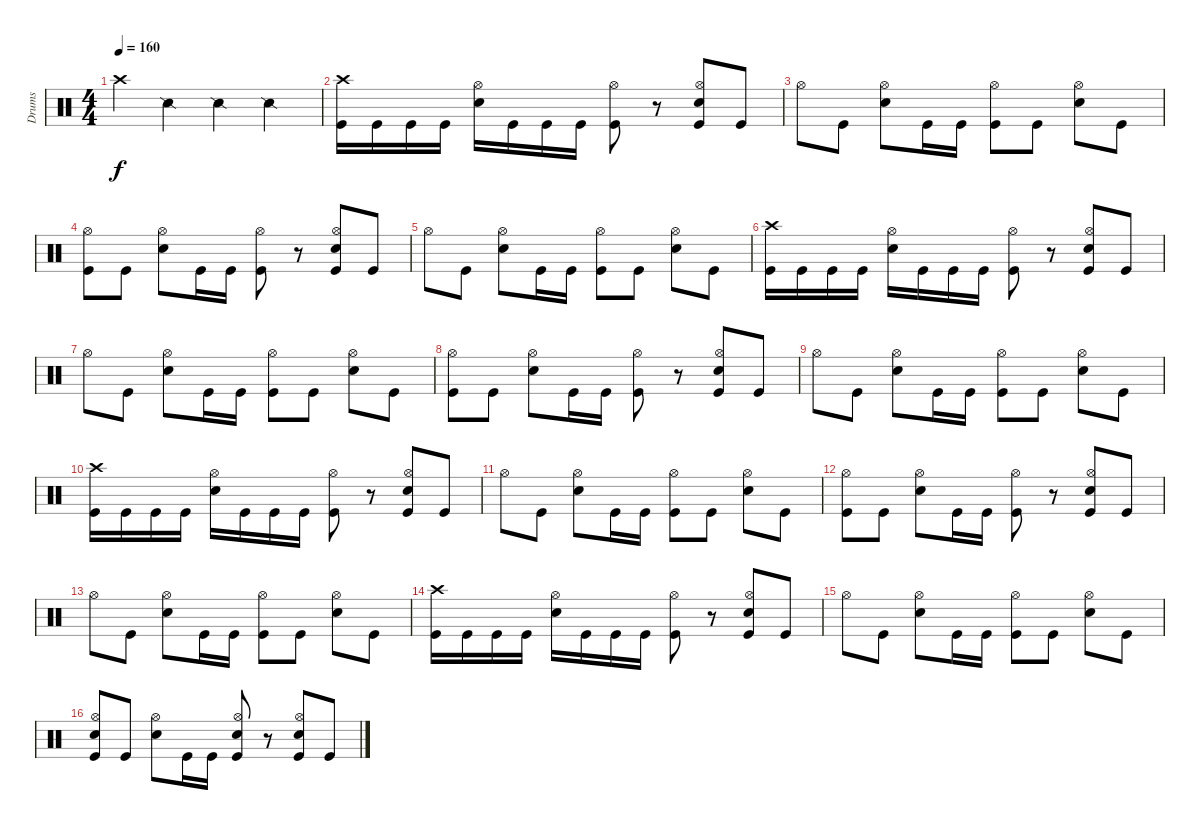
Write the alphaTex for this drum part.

\track ("Drums" "Drums") {instrument percussion}
\staff {score}
\articulation defaults
\ts (4 4)
\tempo 160
\clef neutral
\ks c "Crash high (hit)".4{dy f} "Snare (side stick) 2".4 "Snare (side stick) 2".4 "Snare (side stick) 2".4
|
("Crash high (hit)" "Kick (hit)").16 "Kick (hit)".16 "Kick (hit)".16 "Kick (hit)".16 ("Hi-Hat (open)" "Electric Snare (hit)").16 "Kick (hit)".16 "Kick (hit)".16 "Kick (hit)".16 ("Hi-Hat (open)" "Kick (hit)").8 r.8 ("Hi-Hat (open)" "Electric Snare (hit)" "Kick (hit)").8 "Kick (hit)".8 |
"Hi-Hat (open)".8 "Kick (hit)".8 ("Hi-Hat (open)" "Electric Snare (hit)").8 "Kick (hit)".16 "Kick (hit)".16 ("Hi-Hat (open)" "Kick (hit)").8 "Kick (hit)".8 ("Hi-Hat (open)" "Electric Snare (hit)").8 "Kick (hit)".8 |
("Hi-Hat (open)" "Kick (hit)").8 "Kick (hit)".8 ("Hi-Hat (open)" "Electric Snare (hit)").8 "Kick (hit)".16 "Kick (hit)".16 ("Hi-Hat (open)" "Kick (hit)").8 r.8 ("Hi-Hat (open)" "Electric Snare (hit)" "Kick (hit)").8 "Kick (hit)".8 |
"Hi-Hat (open)".8 "Kick (hit)".8 ("Hi-Hat (open)" "Electric Snare (hit)").8 "Kick (hit)".16 "Kick (hit)".16 ("Hi-Hat (open)" "Kick (hit)").8 "Kick (hit)".8 ("Hi-Hat (open)" "Electric Snare (hit)").8 "Kick (hit)".8 |
("Crash high (hit)" "Kick (hit)").16 "Kick (hit)".16 "Kick (hit)".16 "Kick (hit)".16 ("Hi-Hat (open)" "Electric Snare (hit)").16 "Kick (hit)".16 "Kick (hit)".16 "Kick (hit)".16 ("Hi-Hat (open)" "Kick (hit)").8 r.8 ("Hi-Hat (open)" "Electric Snare (hit)" "Kick (hit)").8 "Kick (hit)".8 |
"Hi-Hat (open)".8 "Kick (hit)".8 ("Hi-Hat (open)" "Electric Snare (hit)").8 "Kick (hit)".16 "Kick (hit)".16 ("Hi-Hat (open)" "Kick (hit)").8 "Kick (hit)".8 ("Hi-Hat (open)" "Electric Snare (hit)").8 "Kick (hit)".8 |
("Hi-Hat (open)" "Kick (hit)").8 "Kick (hit)".8 ("Hi-Hat (open)" "Electric Snare (hit)").8 "Kick (hit)".16 "Kick (hit)".16 ("Hi-Hat (open)" "Kick (hit)").8 r.8 ("Hi-Hat (open)" "Electric Snare (hit)" "Kick (hit)").8 "Kick (hit)".8 |
"Hi-Hat (open)".8 "Kick (hit)".8 ("Hi-Hat (open)" "Electric Snare (hit)").8 "Kick (hit)".16 "Kick (hit)".16 ("Hi-Hat (open)" "Kick (hit)").8 "Kick (hit)".8 ("Hi-Hat (open)" "Electric Snare (hit)").8 "Kick (hit)".8 |
("Crash high (hit)" "Kick (hit)").16 "Kick (hit)".16 "Kick (hit)".16 "Kick (hit)".16 ("Hi-Hat (open)" "Electric Snare (hit)").16 "Kick (hit)".16 "Kick (hit)".16 "Kick (hit)".16 ("Hi-Hat (open)" "Kick (hit)").8 r.8 ("Hi-Hat (open)" "Electric Snare (hit)" "Kick (hit)").8 "Kick (hit)".8 |
"Hi-Hat (open)".8 "Kick (hit)".8 ("Hi-Hat (open)" "Electric Snare (hit)").8 "Kick (hit)".16 "Kick (hit)".16 ("Hi-Hat (open)" "Kick (hit)").8 "Kick (hit)".8 ("Hi-Hat (open)" "Electric Snare (hit)").8 "Kick (hit)".8 |
("Hi-Hat (open)" "Kick (hit)").8 "Kick (hit)".8 ("Hi-Hat (open)" "Electric Snare (hit)").8 "Kick (hit)".16 "Kick (hit)".16 ("Hi-Hat (open)" "Kick (hit)").8 r.8 ("Hi-Hat (open)" "Electric Snare (hit)" "Kick (hit)").8 "Kick (hit)".8 |
"Hi-Hat (open)".8 "Kick (hit)".8 ("Hi-Hat (open)" "Electric Snare (hit)").8 "Kick (hit)".16 "Kick (hit)".16 ("Hi-Hat (open)" "Kick (hit)").8 "Kick (hit)".8 ("Hi-Hat (open)" "Electric Snare (hit)").8 "Kick (hit)".8 |
("Crash high (hit)" "Kick (hit)").16 "Kick (hit)".16 "Kick (hit)".16 "Kick (hit)".16 ("Hi-Hat (open)" "Electric Snare (hit)").16 "Kick (hit)".16 "Kick (hit)".16 "Kick (hit)".16 ("Hi-Hat (open)" "Kick (hit)").8 r.8 ("Hi-Hat (open)" "Electric Snare (hit)" "Kick (hit)").8 "Kick (hit)".8 |
"Hi-Hat (open)".8 "Kick (hit)".8 ("Hi-Hat (open)" "Electric Snare (hit)").8 "Kick (hit)".16 "Kick (hit)".16 ("Hi-Hat (open)" "Kick (hit)").8 "Kick (hit)".8 ("Hi-Hat (open)" "Electric Snare (hit)").8 "Kick (hit)".8 |
("Hi-Hat (open)" "Electric Snare (hit)" "Kick (hit)").8 "Kick (hit)".8 ("Hi-Hat (open)" "Electric Snare (hit)").8 "Kick (hit)".16 "Kick (hit)".16 ("Hi-Hat (open)" "Electric Snare (hit)" "Kick (hit)").8 r.8 ("Hi-Hat (open)" "Electric Snare (hit)" "Kick (hit)").8 "Kick (hit)".8
